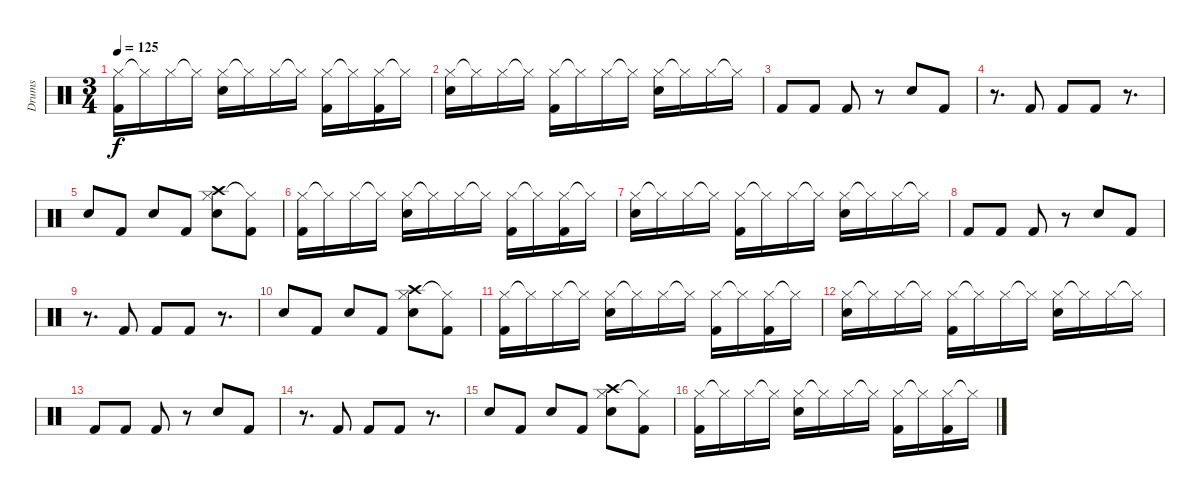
\track ("Drums" "Drums") {instrument percussion}
\staff {score}
\articulation defaults
\ts (3 4)
\tempo 125
\clef neutral
\ks c
("Hi-Hat (closed)" "Kick (hit) 2").16{dy f} "Hi-Hat (closed)"{t}.16 "Hi-Hat (closed)".16 "Hi-Hat (closed)"{t}.16 ("Hi-Hat (closed)" "Snare (hit) 2").16 "Hi-Hat (closed)"{t}.16 "Hi-Hat (closed)".16 "Hi-Hat (closed)"{t}.16 ("Hi-Hat (closed)" "Kick (hit) 2").16 "Hi-Hat (closed)"{t}.16 ("Hi-Hat (closed)" "Kick (hit) 2").16 "Hi-Hat (closed)"{t}.16 |
("Hi-Hat (closed)" "Snare (hit) 2").16 "Hi-Hat (closed)"{t}.16 "Hi-Hat (closed)".16 "Hi-Hat (closed)"{t}.16 ("Hi-Hat (closed)" "Kick (hit) 2").16 "Hi-Hat (closed)"{t}.16 "Hi-Hat (closed)".16 "Hi-Hat (closed)"{t}.16 ("Hi-Hat (closed)" "Snare (hit) 2").16 "Hi-Hat (closed)"{t}.16 "Hi-Hat (closed)".16 "Hi-Hat (closed)"{t}.16 |
"Kick (hit) 2".8 "Kick (hit) 2".8 "Kick (hit) 2".8 r.8 "Snare (hit) 2".8 "Kick (hit) 2".8 |
r.8{d} "Kick (hit) 2".8 "Kick (hit) 2".8 "Kick (hit) 2".8 r.8{d} |
"Snare (hit) 2".8 "Kick (hit) 2".8 "Snare (hit) 2".8 "Kick (hit) 2".8 ("Hi-Hat (closed)" "Snare (hit) 2" "Crash high (hit)").8 ("Hi-Hat (closed)"{t} "Kick (hit) 2").8 |
("Hi-Hat (closed)" "Kick (hit) 2").16 "Hi-Hat (closed)"{t}.16 "Hi-Hat (closed)".16 "Hi-Hat (closed)"{t}.16 ("Hi-Hat (closed)" "Snare (hit) 2").16 "Hi-Hat (closed)"{t}.16 "Hi-Hat (closed)".16 "Hi-Hat (closed)"{t}.16 ("Hi-Hat (closed)" "Kick (hit) 2").16 "Hi-Hat (closed)"{t}.16 ("Hi-Hat (closed)" "Kick (hit) 2").16 "Hi-Hat (closed)"{t}.16 |
("Hi-Hat (closed)" "Snare (hit) 2").16 "Hi-Hat (closed)"{t}.16 "Hi-Hat (closed)".16 "Hi-Hat (closed)"{t}.16 ("Hi-Hat (closed)" "Kick (hit) 2").16 "Hi-Hat (closed)"{t}.16 "Hi-Hat (closed)".16 "Hi-Hat (closed)"{t}.16 ("Hi-Hat (closed)" "Snare (hit) 2").16 "Hi-Hat (closed)"{t}.16 "Hi-Hat (closed)".16 "Hi-Hat (closed)"{t}.16 |
"Kick (hit) 2".8 "Kick (hit) 2".8 "Kick (hit) 2".8 r.8 "Snare (hit) 2".8 "Kick (hit) 2".8 |
r.8{d} "Kick (hit) 2".8 "Kick (hit) 2".8 "Kick (hit) 2".8 r.8{d} |
"Snare (hit) 2".8 "Kick (hit) 2".8 "Snare (hit) 2".8 "Kick (hit) 2".8 ("Hi-Hat (closed)" "Snare (hit) 2" "Crash high (hit)").8 ("Hi-Hat (closed)"{t} "Kick (hit) 2").8 |
("Hi-Hat (closed)" "Kick (hit) 2").16 "Hi-Hat (closed)"{t}.16 "Hi-Hat (closed)".16 "Hi-Hat (closed)"{t}.16 ("Hi-Hat (closed)" "Snare (hit) 2").16 "Hi-Hat (closed)"{t}.16 "Hi-Hat (closed)".16 "Hi-Hat (closed)"{t}.16 ("Hi-Hat (closed)" "Kick (hit) 2").16 "Hi-Hat (closed)"{t}.16 ("Hi-Hat (closed)" "Kick (hit) 2").16 "Hi-Hat (closed)"{t}.16 |
("Hi-Hat (closed)" "Snare (hit) 2").16 "Hi-Hat (closed)"{t}.16 "Hi-Hat (closed)".16 "Hi-Hat (closed)"{t}.16 ("Hi-Hat (closed)" "Kick (hit) 2").16 "Hi-Hat (closed)"{t}.16 "Hi-Hat (closed)".16 "Hi-Hat (closed)"{t}.16 ("Hi-Hat (closed)" "Snare (hit) 2").16 "Hi-Hat (closed)"{t}.16 "Hi-Hat (closed)".16 "Hi-Hat (closed)"{t}.16 |
"Kick (hit) 2".8 "Kick (hit) 2".8 "Kick (hit) 2".8 r.8 "Snare (hit) 2".8 "Kick (hit) 2".8 |
r.8{d} "Kick (hit) 2".8 "Kick (hit) 2".8 "Kick (hit) 2".8 r.8{d} |
"Snare (hit) 2".8 "Kick (hit) 2".8 "Snare (hit) 2".8 "Kick (hit) 2".8 ("Hi-Hat (closed)" "Snare (hit) 2" "Crash high (hit)").8 ("Hi-Hat (closed)"{t} "Kick (hit) 2").8 |
("Hi-Hat (closed)" "Kick (hit) 2").16 "Hi-Hat (closed)"{t}.16 "Hi-Hat (closed)".16 "Hi-Hat (closed)"{t}.16 ("Hi-Hat (closed)" "Snare (hit) 2").16 "Hi-Hat (closed)"{t}.16 "Hi-Hat (closed)".16 "Hi-Hat (closed)"{t}.16 ("Hi-Hat (closed)" "Kick (hit) 2").16 "Hi-Hat (closed)"{t}.16 ("Hi-Hat (closed)" "Kick (hit) 2").16 "Hi-Hat (closed)"{t}.16
